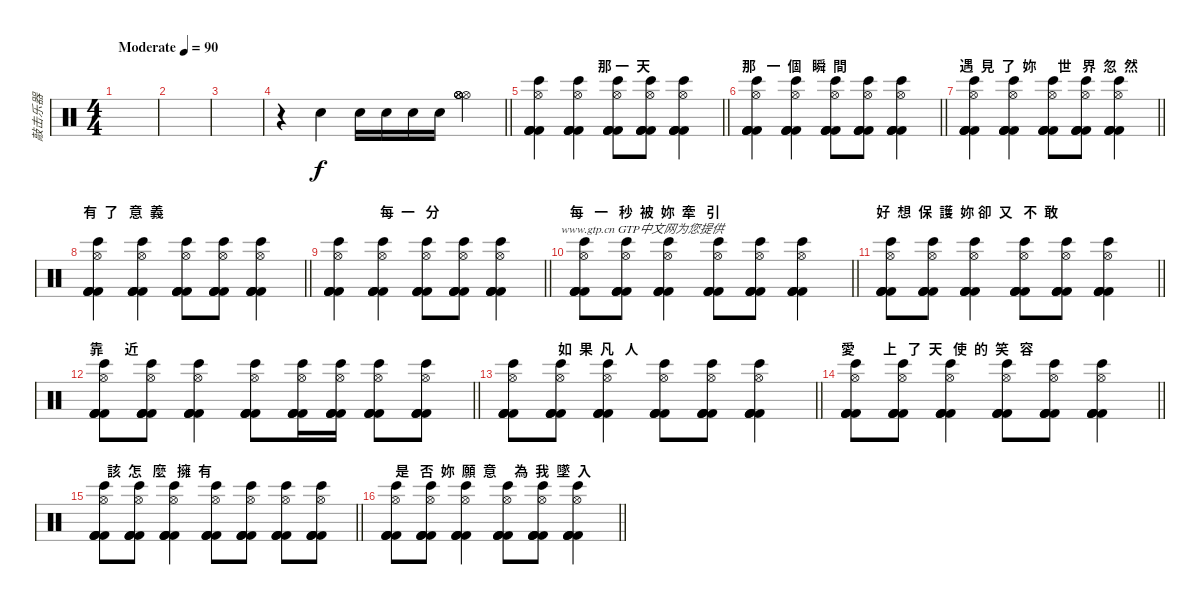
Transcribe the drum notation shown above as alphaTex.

\track ("敲击乐器" "敲击乐器") {instrument percussion}
\staff {score}
\articulation defaults
\ts (4 4)
\tempo (90 "Moderate")
\clef neutral
\ks c
|
|
|
\barLineRight lightlight
r.4 "Snare (hit) 2".4 "Snare (hit) 2".16 "Snare (hit) 2".16 "Snare (hit) 2".16 "Snare (hit) 2".16 ("Hi-Hat (open)" "Hi-Hat (open)" "Hi-Hat (open)" "Hi-Hat (open)").4 |
\section ("" "                     那 一  天")
\barLineRight lightlight
("Kick (hit) 2" "Bongo High (hit)" "Kick (hit) 2" "Hi-Hat (open)" "Kick (hit) 2" "Kick (hit) 2").4 ("Kick (hit) 2" "Bongo High (hit)" "Kick (hit) 2" "Hi-Hat (open)" "Kick (hit) 2" "Kick (hit) 2").4 ("Kick (hit) 2" "Bongo High (hit)" "Kick (hit) 2" "Hi-Hat (open)" "Kick (hit) 2" "Kick (hit) 2").8 ("Kick (hit) 2" "Bongo High (hit)" "Kick (hit) 2" "Hi-Hat (open)" "Kick (hit) 2" "Kick (hit) 2").8 ("Kick (hit) 2" "Bongo High (hit)" "Kick (hit) 2" "Hi-Hat (open)" "Kick (hit) 2" "Kick (hit) 2").4 |
\section ("" "那   一  個   瞬  間")
\barLineRight lightlight
("Kick (hit) 2" "Bongo High (hit)" "Kick (hit) 2" "Hi-Hat (open)" "Kick (hit) 2" "Kick (hit) 2").4 ("Kick (hit) 2" "Bongo High (hit)" "Kick (hit) 2" "Hi-Hat (open)" "Kick (hit) 2" "Kick (hit) 2").4 ("Kick (hit) 2" "Bongo High (hit)" "Kick (hit) 2" "Hi-Hat (open)" "Kick (hit) 2" "Kick (hit) 2").8 ("Kick (hit) 2" "Bongo High (hit)" "Kick (hit) 2" "Hi-Hat (open)" "Kick (hit) 2" "Kick (hit) 2").8 ("Kick (hit) 2" "Bongo High (hit)" "Kick (hit) 2" "Hi-Hat (open)" "Kick (hit) 2" "Kick (hit) 2").4 |
\section ("" "遇  見  了  妳      世   界  忽  然")
\barLineRight lightlight
("Kick (hit) 2" "Bongo High (hit)" "Kick (hit) 2" "Hi-Hat (open)" "Kick (hit) 2" "Kick (hit) 2").4 ("Kick (hit) 2" "Bongo High (hit)" "Kick (hit) 2" "Hi-Hat (open)" "Kick (hit) 2" "Kick (hit) 2").4 ("Kick (hit) 2" "Bongo High (hit)" "Kick (hit) 2" "Hi-Hat (open)" "Kick (hit) 2" "Kick (hit) 2").8 ("Kick (hit) 2" "Bongo High (hit)" "Kick (hit) 2" "Hi-Hat (open)" "Kick (hit) 2" "Kick (hit) 2").8 ("Kick (hit) 2" "Bongo High (hit)" "Kick (hit) 2" "Hi-Hat (open)" "Kick (hit) 2" "Kick (hit) 2").4 |
\section ("" "有  了   意  義 ")
\barLineRight lightlight
("Kick (hit) 2" "Bongo High (hit)" "Kick (hit) 2" "Hi-Hat (open)" "Kick (hit) 2" "Kick (hit) 2").4 ("Kick (hit) 2" "Bongo High (hit)" "Kick (hit) 2" "Hi-Hat (open)" "Kick (hit) 2" "Kick (hit) 2").4 ("Kick (hit) 2" "Bongo High (hit)" "Kick (hit) 2" "Hi-Hat (open)" "Kick (hit) 2" "Kick (hit) 2").8 ("Kick (hit) 2" "Bongo High (hit)" "Kick (hit) 2" "Hi-Hat (open)" "Kick (hit) 2" "Kick (hit) 2").8 ("Kick (hit) 2" "Bongo High (hit)" "Kick (hit) 2" "Hi-Hat (open)" "Kick (hit) 2" "Kick (hit) 2").4 |
\section ("" "                每  一   分 ")
\barLineRight lightlight
("Kick (hit) 2" "Bongo High (hit)" "Kick (hit) 2" "Hi-Hat (open)" "Kick (hit) 2" "Kick (hit) 2").4 ("Kick (hit) 2" "Bongo High (hit)" "Kick (hit) 2" "Hi-Hat (open)" "Kick (hit) 2" "Kick (hit) 2").4 ("Kick (hit) 2" "Bongo High (hit)" "Kick (hit) 2" "Hi-Hat (open)" "Kick (hit) 2" "Kick (hit) 2").8 ("Kick (hit) 2" "Bongo High (hit)" "Kick (hit) 2" "Hi-Hat (open)" "Kick (hit) 2" "Kick (hit) 2").8 ("Kick (hit) 2" "Bongo High (hit)" "Kick (hit) 2" "Hi-Hat (open)" "Kick (hit) 2" "Kick (hit) 2").4{txt "                    www.gtp.cn GTP中文网为您提供"} |
\section ("" "每   一   秒  被  妳  牽   引")
\barLineRight lightlight
("Kick (hit) 2" "Bongo High (hit)" "Kick (hit) 2" "Hi-Hat (open)" "Kick (hit) 2" "Kick (hit) 2").8 ("Kick (hit) 2" "Bongo High (hit)" "Kick (hit) 2" "Hi-Hat (open)" "Kick (hit) 2" "Kick (hit) 2").8 ("Kick (hit) 2" "Bongo High (hit)" "Kick (hit) 2" "Hi-Hat (open)" "Kick (hit) 2" "Kick (hit) 2").4 ("Kick (hit) 2" "Bongo High (hit)" "Kick (hit) 2" "Hi-Hat (open)" "Kick (hit) 2" "Kick (hit) 2").8 ("Kick (hit) 2" "Bongo High (hit)" "Kick (hit) 2" "Hi-Hat (open)" "Kick (hit) 2" "Kick (hit) 2").8 ("Kick (hit) 2" "Bongo High (hit)" "Kick (hit) 2" "Hi-Hat (open)" "Kick (hit) 2" "Kick (hit) 2").4 |
\section ("" "好  想  保  護  妳 卻  又   不  敢")
\barLineRight lightlight
("Kick (hit) 2" "Bongo High (hit)" "Kick (hit) 2" "Hi-Hat (open)" "Kick (hit) 2" "Kick (hit) 2").8 ("Kick (hit) 2" "Bongo High (hit)" "Kick (hit) 2" "Hi-Hat (open)" "Kick (hit) 2" "Kick (hit) 2").8 ("Kick (hit) 2" "Bongo High (hit)" "Kick (hit) 2" "Hi-Hat (open)" "Kick (hit) 2" "Kick (hit) 2").4 ("Kick (hit) 2" "Bongo High (hit)" "Kick (hit) 2" "Hi-Hat (open)" "Kick (hit) 2" "Kick (hit) 2").8 ("Kick (hit) 2" "Bongo High (hit)" "Kick (hit) 2" "Hi-Hat (open)" "Kick (hit) 2" "Kick (hit) 2").8 ("Kick (hit) 2" "Bongo High (hit)" "Kick (hit) 2" "Hi-Hat (open)" "Kick (hit) 2" "Kick (hit) 2").4 |
\section ("" "靠      近")
\barLineRight lightlight
("Kick (hit) 2" "Bongo High (hit)" "Kick (hit) 2" "Hi-Hat (open)" "Kick (hit) 2" "Kick (hit) 2").8 ("Kick (hit) 2" "Bongo High (hit)" "Kick (hit) 2" "Hi-Hat (open)" "Kick (hit) 2" "Kick (hit) 2").8 ("Kick (hit) 2" "Bongo High (hit)" "Kick (hit) 2" "Hi-Hat (open)" "Kick (hit) 2" "Kick (hit) 2").4 ("Kick (hit) 2" "Bongo High (hit)" "Kick (hit) 2" "Hi-Hat (open)" "Kick (hit) 2" "Kick (hit) 2").8 ("Kick (hit) 2" "Bongo High (hit)" "Kick (hit) 2" "Hi-Hat (open)" "Kick (hit) 2" "Kick (hit) 2").16 ("Kick (hit) 2" "Bongo High (hit)" "Kick (hit) 2" "Hi-Hat (open)" "Kick (hit) 2" "Kick (hit) 2").16 ("Kick (hit) 2" "Bongo High (hit)" "Kick (hit) 2" "Hi-Hat (open)" "Kick (hit) 2" "Kick (hit) 2").8 ("Kick (hit) 2" "Bongo High (hit)" "Kick (hit) 2" "Hi-Hat (open)" "Kick (hit) 2" "Kick (hit) 2").8 |
\section ("" "                 如  果  凡   人")
\barLineRight lightlight
("Kick (hit) 2" "Bongo High (hit)" "Kick (hit) 2" "Hi-Hat (open)" "Kick (hit) 2" "Kick (hit) 2").8 ("Kick (hit) 2" "Bongo High (hit)" "Kick (hit) 2" "Hi-Hat (open)" "Kick (hit) 2" "Kick (hit) 2").8 ("Kick (hit) 2" "Bongo High (hit)" "Kick (hit) 2" "Hi-Hat (open)" "Kick (hit) 2" "Kick (hit) 2").4 ("Kick (hit) 2" "Bongo High (hit)" "Kick (hit) 2" "Hi-Hat (open)" "Kick (hit) 2" "Kick (hit) 2").8 ("Kick (hit) 2" "Bongo High (hit)" "Kick (hit) 2" "Hi-Hat (open)" "Kick (hit) 2" "Kick (hit) 2").8 ("Kick (hit) 2" "Bongo High (hit)" "Kick (hit) 2" "Hi-Hat (open)" "Kick (hit) 2" "Kick (hit) 2").4 |
\section ("" "愛        上   了  天   使  的  笑   容 ")
\barLineRight lightlight
("Kick (hit) 2" "Bongo High (hit)" "Kick (hit) 2" "Kick (hit) 2" "Kick (hit) 2" "Hi-Hat (open)").8 ("Kick (hit) 2" "Bongo High (hit)" "Kick (hit) 2" "Hi-Hat (open)" "Kick (hit) 2" "Kick (hit) 2").8 ("Kick (hit) 2" "Bongo High (hit)" "Kick (hit) 2" "Hi-Hat (open)" "Kick (hit) 2" "Kick (hit) 2").4 ("Kick (hit) 2" "Bongo High (hit)" "Kick (hit) 2" "Hi-Hat (open)" "Kick (hit) 2" "Kick (hit) 2").8 ("Kick (hit) 2" "Bongo High (hit)" "Kick (hit) 2" "Hi-Hat (open)" "Kick (hit) 2" "Kick (hit) 2").8 ("Kick (hit) 2" "Bongo High (hit)" "Kick (hit) 2" "Hi-Hat (open)" "Kick (hit) 2" "Kick (hit) 2").4 |
\section ("" "     該  怎   麼   擁  有")
\barLineRight lightlight
("Kick (hit) 2" "Bongo High (hit)" "Kick (hit) 2" "Kick (hit) 2" "Kick (hit) 2" "Hi-Hat (open)").8 ("Kick (hit) 2" "Bongo High (hit)" "Kick (hit) 2" "Hi-Hat (open)" "Kick (hit) 2" "Kick (hit) 2").8 ("Kick (hit) 2" "Bongo High (hit)" "Kick (hit) 2" "Hi-Hat (open)" "Kick (hit) 2" "Kick (hit) 2").4 ("Kick (hit) 2" "Bongo High (hit)" "Kick (hit) 2" "Hi-Hat (open)" "Kick (hit) 2" "Kick (hit) 2").8 ("Kick (hit) 2" "Bongo High (hit)" "Kick (hit) 2" "Hi-Hat (open)" "Kick (hit) 2" "Kick (hit) 2").8 ("Kick (hit) 2" "Bongo High (hit)" "Kick (hit) 2" "Hi-Hat (open)" "Kick (hit) 2" "Kick (hit) 2").8 ("Kick (hit) 2" "Bongo High (hit)" "Kick (hit) 2" "Hi-Hat (open)" "Kick (hit) 2" "Kick (hit) 2").8 |
\section ("" "    是   否  妳  願  意     為  我  墜  入")
\barLineRight lightlight
("Kick (hit) 2" "Bongo High (hit)" "Kick (hit) 2" "Kick (hit) 2" "Kick (hit) 2" "Hi-Hat (open)").8 ("Kick (hit) 2" "Bongo High (hit)" "Kick (hit) 2" "Hi-Hat (open)" "Kick (hit) 2" "Kick (hit) 2").8 ("Kick (hit) 2" "Bongo High (hit)" "Kick (hit) 2" "Hi-Hat (open)" "Kick (hit) 2" "Kick (hit) 2").4 ("Kick (hit) 2" "Bongo High (hit)" "Kick (hit) 2" "Hi-Hat (open)" "Kick (hit) 2" "Kick (hit) 2").8 ("Kick (hit) 2" "Bongo High (hit)" "Kick (hit) 2" "Hi-Hat (open)" "Kick (hit) 2" "Kick (hit) 2").8 ("Kick (hit) 2" "Bongo High (hit)" "Kick (hit) 2" "Hi-Hat (open)" "Kick (hit) 2" "Kick (hit) 2").4
